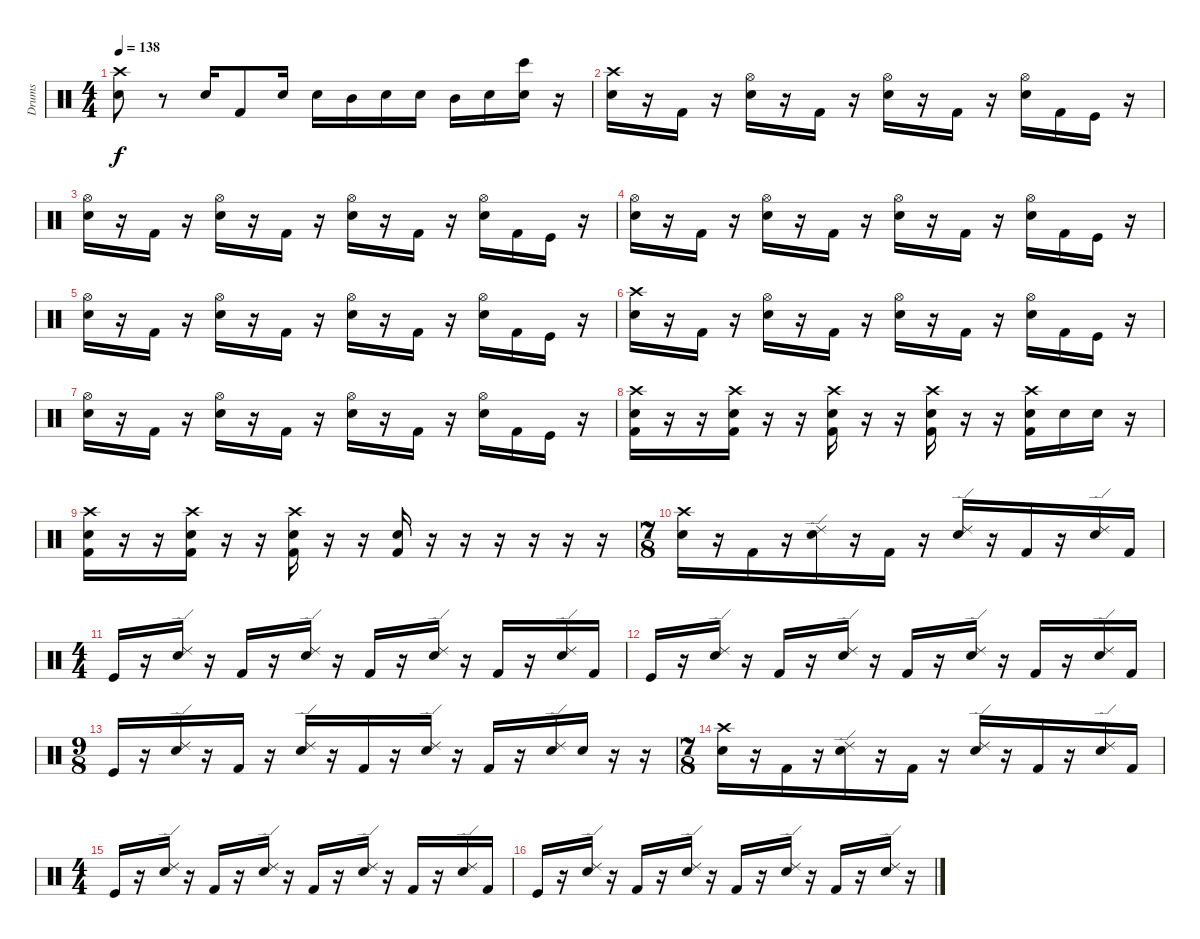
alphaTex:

\track ("Drums" "Drums") {instrument percussion}
\staff {score}
\articulation defaults
\ts (4 4)
\tempo 138
\clef neutral
\ks c
("Crash high (hit)" "Snare (hit) 2").8{dy f} r.8 "Snare (hit) 2".16 "Kick (hit) 2".8 "Snare (hit) 2".16 "Snare (hit) 2".16 "Mid Tom (hit)".16 "Snare (hit) 2".16 "Snare (hit) 2".16 "Mid Tom (hit)".16 "Snare (hit) 2".16 ("Bongo High (hit)" "Snare (hit) 2").16 r.16 |
("Crash high (hit)" "Snare (hit) 2").16 r.16 "Kick (hit) 2".16 r.16 ("Hi-Hat (open)" "Snare (hit) 2").16 r.16 "Kick (hit) 2".16 r.16 ("Hi-Hat (open)" "Snare (hit) 2").16 r.16 "Kick (hit) 2".16 r.16 ("Hi-Hat (open)" "Snare (hit) 2").16 "Kick (hit) 2".16 "Kick (hit)".16 r.16 |
("Hi-Hat (open)" "Snare (hit) 2").16 r.16 "Kick (hit) 2".16 r.16 ("Hi-Hat (open)" "Snare (hit) 2").16 r.16 "Kick (hit) 2".16 r.16 ("Hi-Hat (open)" "Snare (hit) 2").16 r.16 "Kick (hit) 2".16 r.16 ("Hi-Hat (open)" "Snare (hit) 2").16 "Kick (hit) 2".16 "Kick (hit)".16 r.16 |
("Hi-Hat (open)" "Snare (hit) 2").16 r.16 "Kick (hit) 2".16 r.16 ("Hi-Hat (open)" "Snare (hit) 2").16 r.16 "Kick (hit) 2".16 r.16 ("Hi-Hat (open)" "Snare (hit) 2").16 r.16 "Kick (hit) 2".16 r.16 ("Hi-Hat (open)" "Snare (hit) 2").16 "Kick (hit) 2".16 "Kick (hit)".16 r.16 |
("Hi-Hat (open)" "Snare (hit) 2").16 r.16 "Kick (hit) 2".16 r.16 ("Hi-Hat (open)" "Snare (hit) 2").16 r.16 "Kick (hit) 2".16 r.16 ("Hi-Hat (open)" "Snare (hit) 2").16 r.16 "Kick (hit) 2".16 r.16 ("Hi-Hat (open)" "Snare (hit) 2").16 "Kick (hit) 2".16 "Kick (hit)".16 r.16 |
("Crash high (hit)" "Snare (hit) 2").16 r.16 "Kick (hit) 2".16 r.16 ("Hi-Hat (open)" "Snare (hit) 2").16 r.16 "Kick (hit) 2".16 r.16 ("Hi-Hat (open)" "Snare (hit) 2").16 r.16 "Kick (hit) 2".16 r.16 ("Hi-Hat (open)" "Snare (hit) 2").16 "Kick (hit) 2".16 "Kick (hit)".16 r.16 |
("Hi-Hat (open)" "Snare (hit) 2").16 r.16 "Kick (hit) 2".16 r.16 ("Hi-Hat (open)" "Snare (hit) 2").16 r.16 "Kick (hit) 2".16 r.16 ("Hi-Hat (open)" "Snare (hit) 2").16 r.16 "Kick (hit) 2".16 r.16 ("Hi-Hat (open)" "Snare (hit) 2").16 "Kick (hit) 2".16 "Kick (hit)".16 r.16 |
("Crash high (hit)" "Snare (hit) 2" "Kick (hit) 2").16 r.16 r.16 ("Crash high (hit)" "Snare (hit) 2" "Kick (hit) 2").16 r.16 r.16 ("Crash high (hit)" "Snare (hit) 2" "Kick (hit) 2").16 r.16 r.16 ("Crash high (hit)" "Snare (hit) 2" "Kick (hit) 2").16 r.16 r.16 ("Crash high (hit)" "Snare (hit) 2" "Kick (hit) 2").16 "Snare (hit) 2".16 "Snare (hit) 2".16 r.16 |
("Crash high (hit)" "Snare (hit) 2" "Kick (hit) 2").16 r.16 r.16 ("Crash high (hit)" "Snare (hit) 2" "Kick (hit) 2").16 r.16 r.16 ("Crash high (hit)" "Snare (hit) 2" "Kick (hit) 2").16 r.16 r.16 ("Snare (hit) 2" "Kick (hit) 2").16 r.16 r.16 r.16 r.16 r.16 r.16 |
\ts (7 8)
\section ("" "")
("Crash high (hit)" "Snare (hit) 2").16 r.16 "Kick (hit) 2".16 r.16 ("Ride (edge) 2" "Snare (hit) 2").16 r.16 "Kick (hit) 2".16 r.16 ("Ride (edge) 2" "Snare (hit) 2").16 r.16 "Kick (hit) 2".16 r.16 ("Ride (edge) 2" "Snare (hit) 2").16 "Kick (hit) 2".16 |
\ts (4 4)
"Kick (hit)".16 r.16 ("Ride (edge) 2" "Snare (hit) 2").16 r.16 "Kick (hit) 2".16 r.16 ("Ride (edge) 2" "Snare (hit) 2").16 r.16 "Kick (hit) 2".16 r.16 ("Ride (edge) 2" "Snare (hit) 2").16 r.16 "Kick (hit) 2".16 r.16 ("Ride (edge) 2" "Snare (hit) 2").16 "Kick (hit) 2".16 |
"Kick (hit)".16 r.16 ("Ride (edge) 2" "Snare (hit) 2").16 r.16 "Kick (hit) 2".16 r.16 ("Ride (edge) 2" "Snare (hit) 2").16 r.16 "Kick (hit) 2".16 r.16 ("Ride (edge) 2" "Snare (hit) 2").16 r.16 "Kick (hit) 2".16 r.16 ("Ride (edge) 2" "Snare (hit) 2").16 "Kick (hit) 2".16 |
\ts (9 8)
"Kick (hit)".16 r.16 ("Ride (edge) 2" "Snare (hit) 2").16 r.16 "Kick (hit) 2".16 r.16 ("Ride (edge) 2" "Snare (hit) 2").16 r.16 "Kick (hit) 2".16 r.16 ("Ride (edge) 2" "Snare (hit) 2").16 r.16 "Kick (hit) 2".16 r.16 ("Ride (edge) 2" "Snare (hit) 2").16 "Snare (hit) 2".16 r.16 r.16 |
\ts (7 8)
("Crash high (hit)" "Snare (hit) 2").16 r.16 "Kick (hit) 2".16 r.16 ("Ride (edge) 2" "Snare (hit) 2").16 r.16 "Kick (hit) 2".16 r.16 ("Ride (edge) 2" "Snare (hit) 2").16 r.16 "Kick (hit) 2".16 r.16 ("Ride (edge) 2" "Snare (hit) 2").16 "Kick (hit) 2".16 |
\ts (4 4)
"Kick (hit)".16 r.16 ("Ride (edge) 2" "Snare (hit) 2").16 r.16 "Kick (hit) 2".16 r.16 ("Ride (edge) 2" "Snare (hit) 2").16 r.16 "Kick (hit) 2".16 r.16 ("Ride (edge) 2" "Snare (hit) 2").16 r.16 "Kick (hit) 2".16 r.16 ("Ride (edge) 2" "Snare (hit) 2").16 "Kick (hit) 2".16 |
"Kick (hit)".16 r.16 ("Ride (edge) 2" "Snare (hit) 2").16 r.16 "Kick (hit) 2".16 r.16 ("Ride (edge) 2" "Snare (hit) 2").16 r.16 "Kick (hit) 2".16 r.16 ("Ride (edge) 2" "Snare (hit) 2").16 r.16 "Kick (hit) 2".16 r.16 ("Ride (edge) 2" "Snare (hit) 2").16 r.16
